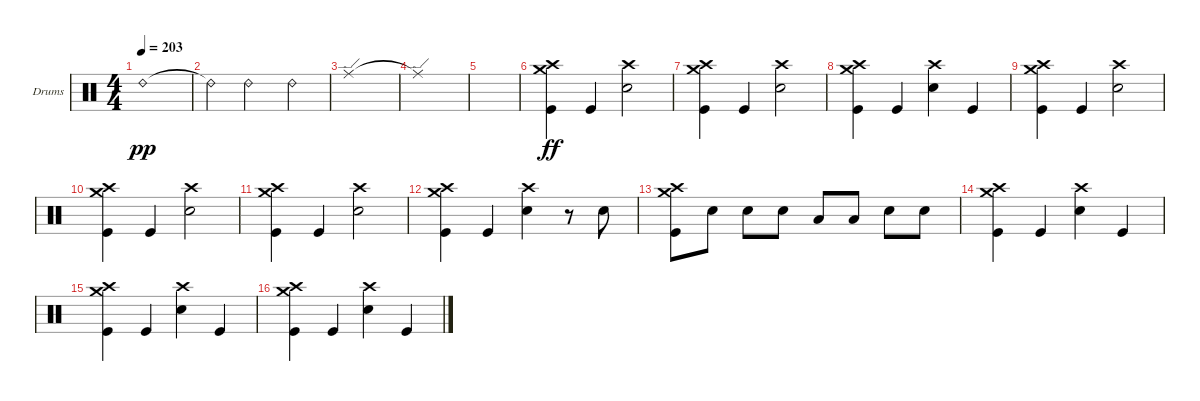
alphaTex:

\defaultSystemsLayout 4
\bracketExtendMode groupsimilarinstruments
\firstSystemTrackNameOrientation horizontal
\otherSystemsTrackNameOrientation horizontal
\track ("Brandon Barnes - Drums" "Drums") {instrument percussion}
\staff {score}
\articulation defaults
\ts (4 4)
\tempo 203
\clef neutral
\ks c "Ride (bell) 2".1{dy pp}
|
"Ride (bell) 2"{t}.4 "Ride (bell) 2".2 "Ride (bell) 2".4 |
"Ride (edge)".1 |
"Ride (edge)"{t}.1 |
|
("Kick (hit)" "Crash high (hit)" "Crash medium (hit)").4{dy ff} "Kick (hit)".4 ("Snare (hit) 2" "Crash high (hit)").2 |
("Kick (hit)" "Crash high (hit)" "Crash medium (hit)").4 "Kick (hit)".4 ("Snare (hit) 2" "Crash high (hit)").2 |
("Kick (hit)" "Crash high (hit)" "Crash medium (hit)").4 "Kick (hit)".4 ("Snare (hit) 2" "Crash high (hit)").4 "Kick (hit)".4 |
("Kick (hit)" "Crash high (hit)" "Crash medium (hit)").4 "Kick (hit)".4 ("Snare (hit) 2" "Crash high (hit)").2 |
("Kick (hit)" "Crash high (hit)" "Crash medium (hit)").4 "Kick (hit)".4 ("Snare (hit) 2" "Crash high (hit)").2 |
("Kick (hit)" "Crash high (hit)" "Crash medium (hit)").4 "Kick (hit)".4 ("Snare (hit) 2" "Crash high (hit)").2 |
("Kick (hit)" "Crash high (hit)" "Crash medium (hit)").4 "Kick (hit)".4 ("Snare (hit) 2" "Crash high (hit)").4 r.8 "Snare (hit) 2".8 |
("Kick (hit)" "Crash high (hit)" "Crash medium (hit)").8 "Snare (hit) 2".8 "Snare (hit) 2".8 "Snare (hit) 2".8 "Low Tom (hit)".8 "Low Tom (hit)".8 "Snare (hit) 2".8 "Snare (hit) 2".8 |
("Kick (hit)" "Crash high (hit)" "Crash medium (hit)").4 "Kick (hit)".4 ("Snare (hit) 2" "Crash high (hit)").4 "Kick (hit)".4 |
("Kick (hit)" "Crash high (hit)" "Crash medium (hit)").4 "Kick (hit)".4 ("Snare (hit) 2" "Crash high (hit)").4 "Kick (hit)".4 |
("Kick (hit)" "Crash high (hit)" "Crash medium (hit)").4 "Kick (hit)".4 ("Snare (hit) 2" "Crash high (hit)").4 "Kick (hit)".4
